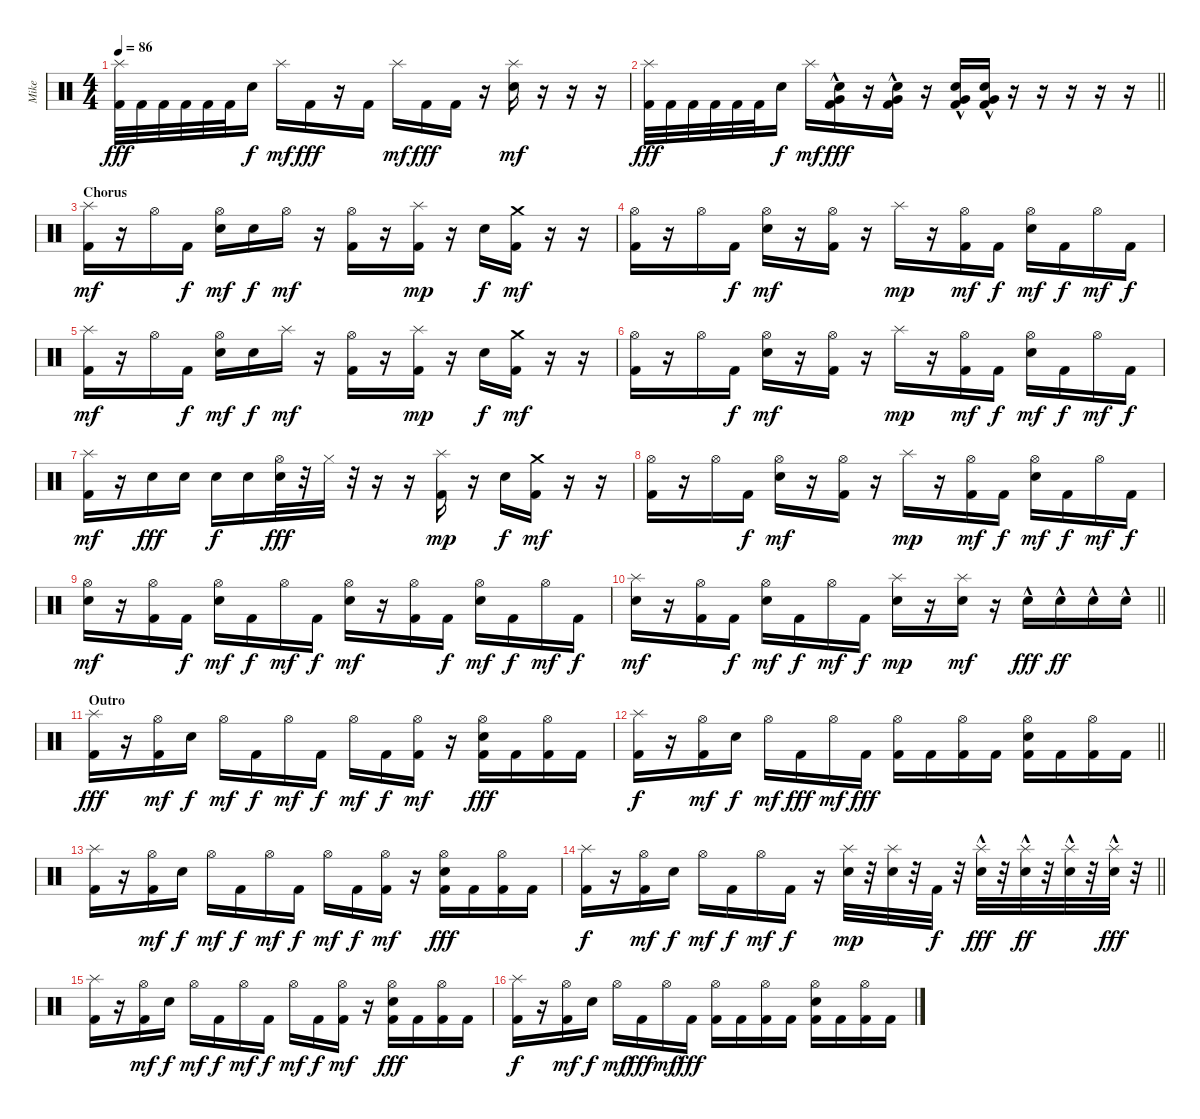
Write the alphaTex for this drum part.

\track ("Mike" "Mike") {instrument percussion}
\staff {score}
\articulation defaults
\ts (4 4)
\tempo 86
\clef neutral
\ks c
("Splash (hit)" "Kick (hit) 2").32{dy fff} "Kick (hit) 2".32 "Kick (hit) 2".32 "Kick (hit) 2".32 "Kick (hit) 2".32 "Kick (hit) 2".32 "Snare (hit) 2".16{dy f} "Splash (hit)".16{dy mf} "Kick (hit) 2".16{dy fff} r.16 "Kick (hit) 2".16 "Splash (hit)".16{dy mf} "Kick (hit) 2".16{dy fff} "Kick (hit) 2".16 r.16 ("Splash (hit)" "Snare (hit) 2").16{dy mf} r.16 r.16 r.16 |
\barLineRight lightlight
("Splash (hit)" "Kick (hit) 2").32{dy fff} "Kick (hit) 2".32 "Kick (hit) 2".32 "Kick (hit) 2".32 "Kick (hit) 2".32 "Kick (hit) 2".32 "Snare (hit) 2".16{dy f} "Splash (hit)".16{dy mf} ("Very Low Tom (hit)"{hac} "Snare (hit) 2"{hac} "Kick (hit) 2"{hac}).16{dy fff} r.16 ("Very Low Tom (hit)"{hac} "Snare (hit) 2"{hac} "Kick (hit) 2"{hac}).16 r.16 ("Very Low Tom (hit)"{hac} "Snare (hit) 2"{hac} "Kick (hit) 2"{hac}).16 ("Very Low Tom (hit)"{hac} "Snare (hit) 2"{hac} "Kick (hit) 2"{hac}).16 r.16 r.16 r.16 r.16 r.16 |
\section ("" "Chorus")
("Splash (hit)" "Kick (hit) 2").16{dy mf} r.16 "Hi-Hat (open)".16 "Kick (hit) 2".16{dy f} ("Hi-Hat (open)" "Snare (hit) 2").16{dy mf} "Snare (hit) 2".16{dy f} "Hi-Hat (open)".16{dy mf} r.16 ("Hi-Hat (open)" "Kick (hit) 2").16 r.16 ("Splash (hit)" "Kick (hit) 2").16{dy mp} r.16 "Snare (hit) 2".16{dy f} ("Crash medium (hit)" "Kick (hit) 2").16{dy mf} r.16 r.16 |
("Hi-Hat (open)" "Kick (hit) 2").16 r.16 "Hi-Hat (open)".16 "Kick (hit) 2".16{dy f} ("Hi-Hat (open)" "Snare (hit) 2").16{dy mf} r.16 ("Hi-Hat (open)" "Kick (hit) 2").16 r.16 "Splash (hit)".16{dy mp} r.16 ("Hi-Hat (open)" "Kick (hit) 2").16{dy mf} "Kick (hit) 2".16{dy f} ("Hi-Hat (open)" "Snare (hit) 2").16{dy mf} "Kick (hit) 2".16{dy f} "Hi-Hat (open)".16{dy mf} "Kick (hit) 2".16{dy f} |
("Splash (hit)" "Kick (hit) 2").16{dy mf} r.16 "Hi-Hat (open)".16 "Kick (hit) 2".16{dy f} ("Hi-Hat (open)" "Snare (hit) 2").16{dy mf} "Snare (hit) 2".16{dy f} "Splash (hit)".16{dy mf} r.16 ("Hi-Hat (open)" "Kick (hit) 2").16 r.16 ("Splash (hit)" "Kick (hit) 2").16{dy mp} r.16 "Snare (hit) 2".16{dy f} ("Crash medium (hit)" "Kick (hit) 2").16{dy mf} r.16 r.16 |
("Hi-Hat (open)" "Kick (hit) 2").16 r.16 "Hi-Hat (open)".16 "Kick (hit) 2".16{dy f} ("Hi-Hat (open)" "Snare (hit) 2").16{dy mf} r.16 ("Hi-Hat (open)" "Kick (hit) 2").16 r.16 "Splash (hit)".16{dy mp} r.16 ("Hi-Hat (open)" "Kick (hit) 2").16{dy mf} "Kick (hit) 2".16{dy f} ("Hi-Hat (open)" "Snare (hit) 2").16{dy mf} "Kick (hit) 2".16{dy f} "Hi-Hat (open)".16{dy mf} "Kick (hit) 2".16{dy f} |
("Splash (hit)" "Kick (hit) 2").16{dy mf} r.16 "Snare (hit) 2".16{dy fff} "Snare (hit) 2".16 "Snare (hit) 2".16{dy f} "Snare (hit) 2".16 ("Hi-Hat (open)" "Snare (hit) 2").32{dy fff} r.32 "Hi-Hat (closed)".32 r.32 r.16 r.16 ("Splash (hit)" "Kick (hit) 2").16{dy mp} r.16 "Snare (hit) 2".16{dy f} ("Crash medium (hit)" "Kick (hit) 2").16{dy mf} r.16 r.16 |
("Hi-Hat (open)" "Kick (hit) 2").16 r.16 "Hi-Hat (open)".16 "Kick (hit) 2".16{dy f} ("Hi-Hat (open)" "Snare (hit) 2").16{dy mf} r.16 ("Hi-Hat (open)" "Kick (hit) 2").16 r.16 "Splash (hit)".16{dy mp} r.16 ("Hi-Hat (open)" "Kick (hit) 2").16{dy mf} "Kick (hit) 2".16{dy f} ("Hi-Hat (open)" "Snare (hit) 2").16{dy mf} "Kick (hit) 2".16{dy f} "Hi-Hat (open)".16{dy mf} "Kick (hit) 2".16{dy f} |
("Hi-Hat (open)" "Snare (hit) 2").16{dy mf} r.16 ("Hi-Hat (open)" "Kick (hit) 2").16 "Kick (hit) 2".16{dy f} ("Hi-Hat (open)" "Snare (hit) 2").16{dy mf} "Kick (hit) 2".16{dy f} "Hi-Hat (open)".16{dy mf} "Kick (hit) 2".16{dy f} ("Hi-Hat (open)" "Snare (hit) 2").16{dy mf} r.16 ("Hi-Hat (open)" "Kick (hit) 2").16 "Kick (hit) 2".16{dy f} ("Hi-Hat (open)" "Snare (hit) 2").16{dy mf} "Kick (hit) 2".16{dy f} "Hi-Hat (open)".16{dy mf} "Kick (hit) 2".16{dy f} |
\barLineRight lightlight
("Splash (hit)" "Snare (hit) 2").16{dy mf} r.16 ("Hi-Hat (open)" "Kick (hit) 2").16 "Kick (hit) 2".16{dy f} ("Hi-Hat (open)" "Snare (hit) 2").16{dy mf} "Kick (hit) 2".16{dy f} "Hi-Hat (open)".16{dy mf} "Kick (hit) 2".16{dy f} ("Splash (hit)" "Snare (hit) 2").16{dy mp} r.16 ("Splash (hit)" "Snare (hit) 2").16{dy mf} r.16 "Snare (hit) 2"{hac}.16{dy fff} "Snare (hit) 2"{hac}.16{dy ff} "Snare (hit) 2"{hac}.16 "Snare (hit) 2"{hac}.16 |
\section ("" "Outro")
("Splash (hit)" "Kick (hit) 2").16{dy fff} r.16 ("Hi-Hat (open)" "Kick (hit) 2").16{dy mf} "Snare (hit) 2".16{dy f} "Hi-Hat (open)".16{dy mf} "Kick (hit) 2".16{dy f} "Hi-Hat (open)".16{dy mf} "Kick (hit) 2".16{dy f} "Hi-Hat (open)".16{dy mf} "Kick (hit) 2".16{dy f} ("Hi-Hat (open)" "Kick (hit) 2").16{dy mf} r.16 ("Hi-Hat (open)" "Snare (hit) 2" "Kick (hit) 2").16{dy fff} "Kick (hit) 2".16 ("Hi-Hat (open)" "Kick (hit) 2").16 "Kick (hit) 2".16 |
\barLineRight lightlight
("Splash (hit)" "Kick (hit) 2").16{dy f} r.16 ("Hi-Hat (open)" "Kick (hit) 2").16{dy mf} "Snare (hit) 2".16{dy f} "Hi-Hat (open)".16{dy mf} "Kick (hit) 2".16{dy fff} "Hi-Hat (open)".16{dy mf} "Kick (hit) 2".16{dy fff} ("Hi-Hat (open)" "Kick (hit) 2").16 "Kick (hit) 2".16 ("Hi-Hat (open)" "Kick (hit) 2").16 "Kick (hit) 2".16 ("Hi-Hat (open)" "Snare (hit) 2" "Kick (hit) 2").16 "Kick (hit) 2".16 ("Hi-Hat (open)" "Kick (hit) 2").16 "Kick (hit) 2".16 |
("Splash (hit)" "Kick (hit) 2").16 r.16 ("Hi-Hat (open)" "Kick (hit) 2").16{dy mf} "Snare (hit) 2".16{dy f} "Hi-Hat (open)".16{dy mf} "Kick (hit) 2".16{dy f} "Hi-Hat (open)".16{dy mf} "Kick (hit) 2".16{dy f} "Hi-Hat (open)".16{dy mf} "Kick (hit) 2".16{dy f} ("Hi-Hat (open)" "Kick (hit) 2").16{dy mf} r.16 ("Hi-Hat (open)" "Snare (hit) 2" "Kick (hit) 2").16{dy fff} "Kick (hit) 2".16 ("Hi-Hat (open)" "Kick (hit) 2").16 "Kick (hit) 2".16 |
\barLineRight lightlight
("Splash (hit)" "Kick (hit) 2").16{dy f} r.16 ("Hi-Hat (open)" "Kick (hit) 2").16{dy mf} "Snare (hit) 2".16{dy f} "Hi-Hat (open)".16{dy mf} "Kick (hit) 2".16{dy f} "Hi-Hat (open)".16{dy mf} "Kick (hit) 2".16{dy f} r.16 ("Splash (hit)" "Snare (hit) 2").32{dy mp} r.32 ("Splash (hit)" "Snare (hit) 2").32 r.32 "Kick (hit) 2".32{dy f} r.32 ("Splash (hit)" "Snare (hit) 2"{hac}).32{dy fff} r.32 ("Splash (hit)" "Snare (hit) 2"{hac}).32{dy ff} r.32 ("Splash (hit)" "Snare (hit) 2"{hac}).32 r.32 ("Splash (hit)" "Snare (hit) 2"{hac}).32{dy fff} r.32 |
("Splash (hit)" "Kick (hit) 2").16 r.16 ("Hi-Hat (open)" "Kick (hit) 2").16{dy mf} "Snare (hit) 2".16{dy f} "Hi-Hat (open)".16{dy mf} "Kick (hit) 2".16{dy f} "Hi-Hat (open)".16{dy mf} "Kick (hit) 2".16{dy f} "Hi-Hat (open)".16{dy mf} "Kick (hit) 2".16{dy f} ("Hi-Hat (open)" "Kick (hit) 2").16{dy mf} r.16 ("Hi-Hat (open)" "Snare (hit) 2" "Kick (hit) 2").16{dy fff} "Kick (hit) 2".16 ("Hi-Hat (open)" "Kick (hit) 2").16 "Kick (hit) 2".16 |
("Splash (hit)" "Kick (hit) 2").16{dy f} r.16 ("Hi-Hat (open)" "Kick (hit) 2").16{dy mf} "Snare (hit) 2".16{dy f} "Hi-Hat (open)".16{dy mf} "Kick (hit) 2".16{dy fff} "Hi-Hat (open)".16{dy mf} "Kick (hit) 2".16{dy fff} ("Hi-Hat (open)" "Kick (hit) 2").16 "Kick (hit) 2".16 ("Hi-Hat (open)" "Kick (hit) 2").16 "Kick (hit) 2".16 ("Hi-Hat (open)" "Snare (hit) 2" "Kick (hit) 2").16 "Kick (hit) 2".16 ("Hi-Hat (open)" "Kick (hit) 2").16 "Kick (hit) 2".16
